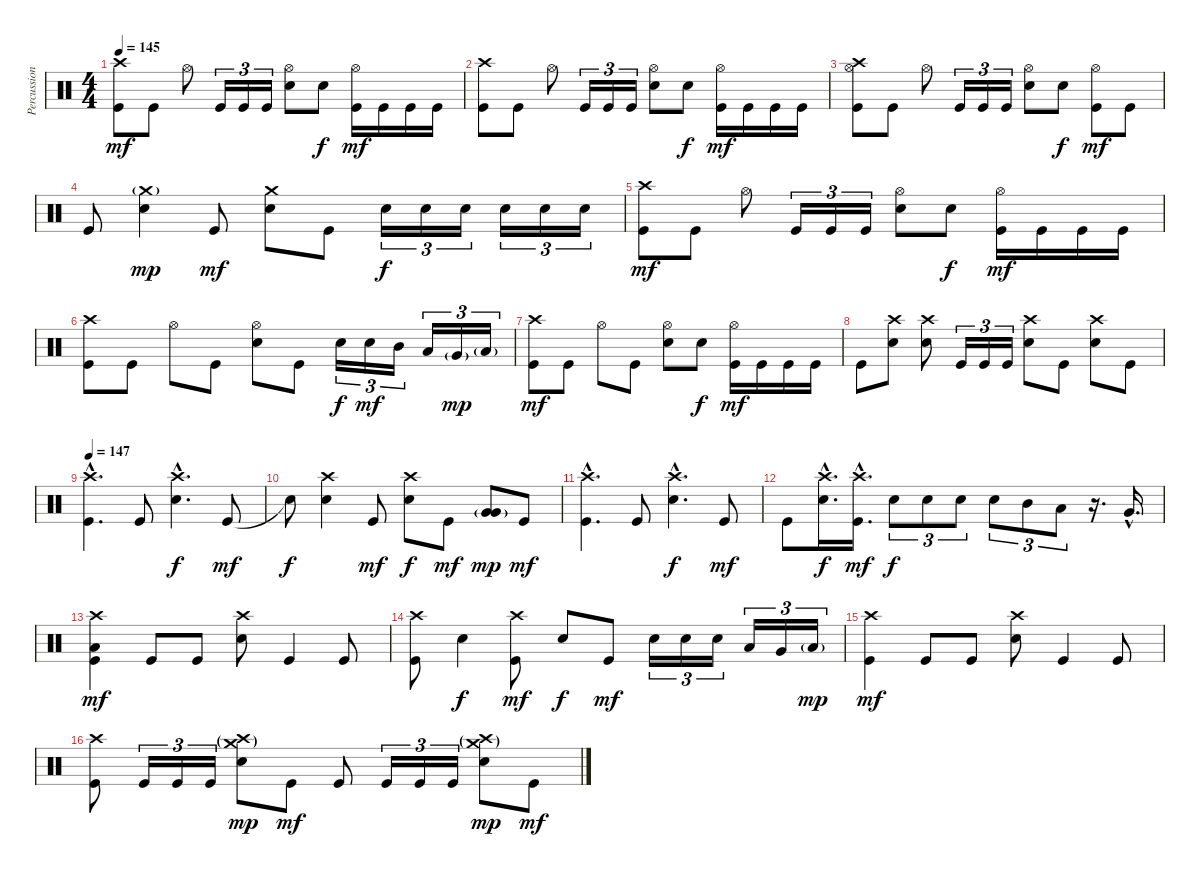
\track ("Percussion" "Percussion") {instrument percussion}
\staff {score}
\articulation defaults
\ts (4 4)
\tempo 145
\clef neutral
\ks c
("Crash high (hit)" "Kick (hit)").8{dy mf} "Kick (hit)".8 "Hi-Hat (open)".8 "Kick (hit)".16{tu (3 2)} "Kick (hit)".16{tu (3 2)} "Kick (hit)".16{tu (3 2)} ("Hi-Hat (open)" "Electric Snare (hit)").8 "Electric Snare (hit)".8{dy f} ("Hi-Hat (open)" "Kick (hit)").16{dy mf} "Kick (hit)".16 "Kick (hit)".16 "Kick (hit)".16 |
("Crash high (hit)" "Kick (hit)").8 "Kick (hit)".8 "Hi-Hat (open)".8 "Kick (hit)".16{tu (3 2)} "Kick (hit)".16{tu (3 2)} "Kick (hit)".16{tu (3 2)} ("Hi-Hat (open)" "Electric Snare (hit)").8 "Electric Snare (hit)".8{dy f} ("Hi-Hat (open)" "Kick (hit)").16{dy mf} "Kick (hit)".16 "Kick (hit)".16 "Kick (hit)".16 |
("Crash high (hit)" "Hi-Hat (open)" "Kick (hit)").8 "Kick (hit)".8 "Hi-Hat (open)".8 "Kick (hit)".16{tu (3 2)} "Kick (hit)".16{tu (3 2)} "Kick (hit)".16{tu (3 2)} ("Hi-Hat (open)" "Electric Snare (hit)").8 "Electric Snare (hit)".8{dy f} ("Hi-Hat (open)" "Kick (hit)").8{dy mf} "Kick (hit)".8 |
"Kick (hit)".8 ("Crash medium (hit)"{g} "Electric Snare (hit)").4{dy mp} "Kick (hit)".8{dy mf} ("Crash medium (hit)" "Electric Snare (hit)").8 "Kick (hit)".8 "Electric Snare (hit)".16{tu (3 2) dy f} "Electric Snare (hit)".16{tu (3 2)} "Electric Snare (hit)".16{tu (3 2)} "Electric Snare (hit)".16{tu (3 2)} "Electric Snare (hit)".16{tu (3 2)} "Electric Snare (hit)".16{tu (3 2)} |
("Crash high (hit)" "Kick (hit)").8{dy mf} "Kick (hit)".8 "Hi-Hat (open)".8 "Kick (hit)".16{tu (3 2)} "Kick (hit)".16{tu (3 2)} "Kick (hit)".16{tu (3 2)} ("Hi-Hat (open)" "Electric Snare (hit)").8 "Electric Snare (hit)".8{dy f} ("Hi-Hat (open)" "Kick (hit)").16{dy mf} "Kick (hit)".16 "Kick (hit)".16 "Kick (hit)".16 |
("Crash high (hit)" "Kick (hit)").8 "Kick (hit)".8 "Hi-Hat (open)".8 "Kick (hit)".8 ("Hi-Hat (open)" "Electric Snare (hit)").8 "Kick (hit)".8 "Electric Snare (hit)".16{tu (3 2) dy f} "Electric Snare (hit)".16{tu (3 2) dy mf} "Mid Tom (hit)".16{tu (3 2)} "Low Tom (hit)".16{tu (3 2)} "Very Low Tom (hit)"{g}.16{tu (3 2) dy mp} "Low Floor Tom (hit)"{g}.16{tu (3 2)} |
("Crash high (hit)" "Kick (hit)").8{dy mf} "Kick (hit)".8 "Hi-Hat (open)".8 "Kick (hit)".8 ("Hi-Hat (open)" "Electric Snare (hit)").8 "Electric Snare (hit)".8{dy f} ("Hi-Hat (open)" "Kick (hit)").16{dy mf} "Kick (hit)".16 "Kick (hit)".16 "Kick (hit)".16 |
"Kick (hit)".8 ("Crash high (hit)" "Electric Snare (hit)").8 ("Crash high (hit)" "Electric Snare (hit)").8 "Kick (hit)".16{tu (3 2)} "Kick (hit)".16{tu (3 2)} "Kick (hit)".16{tu (3 2)} ("Crash high (hit)" "Electric Snare (hit)").8 "Kick (hit)".8 ("Crash high (hit)" "Electric Snare (hit)").8 "Kick (hit)".8 |
\tempo 147
("Crash high (hit)"{hac} "Kick (hit)"{hac}).4{d} "Kick (hit)".8 ("Crash high (hit)"{hac} "Electric Snare (hit)"{hac}).4{d dy f} "Kick (hit)".8{dy mf} |
"Snare (hit)"{t}.8{dy f} ("Crash high (hit)" "Electric Snare (hit)").4 "Kick (hit)".8{dy mf} ("Crash high (hit)" "Electric Snare (hit)").8{dy f} "Kick (hit)".8{dy mf} ("Very Low Tom (hit)"{g} "Very Low Tom (hit)").8{dy mp} "Kick (hit)".8{dy mf} |
("Crash high (hit)"{hac} "Kick (hit)"{hac}).4{d} "Kick (hit)".8 ("Crash high (hit)"{hac} "Electric Snare (hit)"{hac}).4{d dy f} "Kick (hit)".8{dy mf} |
"Kick (hit)".8 ("Crash high (hit)"{hac} "Electric Snare (hit)"{hac}).16{d dy f} ("Crash high (hit)"{hac} "Kick (hit)"{hac}).16{d dy mf} "Electric Snare (hit)".8{tu (3 2) dy f} "Electric Snare (hit)".8{tu (3 2)} "Electric Snare (hit)".8{tu (3 2)} "Electric Snare (hit)".8{tu (3 2)} "Mid Tom (hit)".8{tu (3 2)} "Low Tom (hit)".8{tu (3 2)} r.16{d} "Very Low Tom (hit)"{hac}.16{d} |
("Crash high (hit)" "Low Floor Tom (hit)" "Kick (hit)").4{dy mf} "Kick (hit)".8 "Kick (hit)".8 ("Crash high (hit)" "Electric Snare (hit)").8 "Kick (hit)".4 "Kick (hit)".8 |
("Crash high (hit)" "Kick (hit)").8 "Electric Snare (hit)".4{dy f} ("Crash high (hit)" "Kick (hit)").8{dy mf} "Electric Snare (hit)".8{dy f} "Kick (hit)".8{dy mf} "Electric Snare (hit)".16{tu (3 2)} "Electric Snare (hit)".16{tu (3 2)} "Electric Snare (hit)".16{tu (3 2)} "Low Tom (hit)".16{tu (3 2)} "Very Low Tom (hit)".16{tu (3 2)} "Low Floor Tom (hit)"{g}.16{tu (3 2) dy mp} |
("Crash high (hit)" "Kick (hit)").4{dy mf} "Kick (hit)".8 "Kick (hit)".8 ("Crash high (hit)" "Electric Snare (hit)").8 "Kick (hit)".4 "Kick (hit)".8 |
("Crash high (hit)" "Kick (hit)").8 "Kick (hit)".16{tu (3 2)} "Kick (hit)".16{tu (3 2)} "Kick (hit)".16{tu (3 2)} ("Crash medium (hit)"{g} "Crash high (hit)"{g} "Electric Snare (hit)").8{dy mp} "Kick (hit)".8{dy mf} "Kick (hit)".8 "Kick (hit)".16{tu (3 2)} "Kick (hit)".16{tu (3 2)} "Kick (hit)".16{tu (3 2)} ("Crash medium (hit)"{g} "Crash high (hit)"{g} "Electric Snare (hit)").8{dy mp} "Kick (hit)".8{dy mf}
